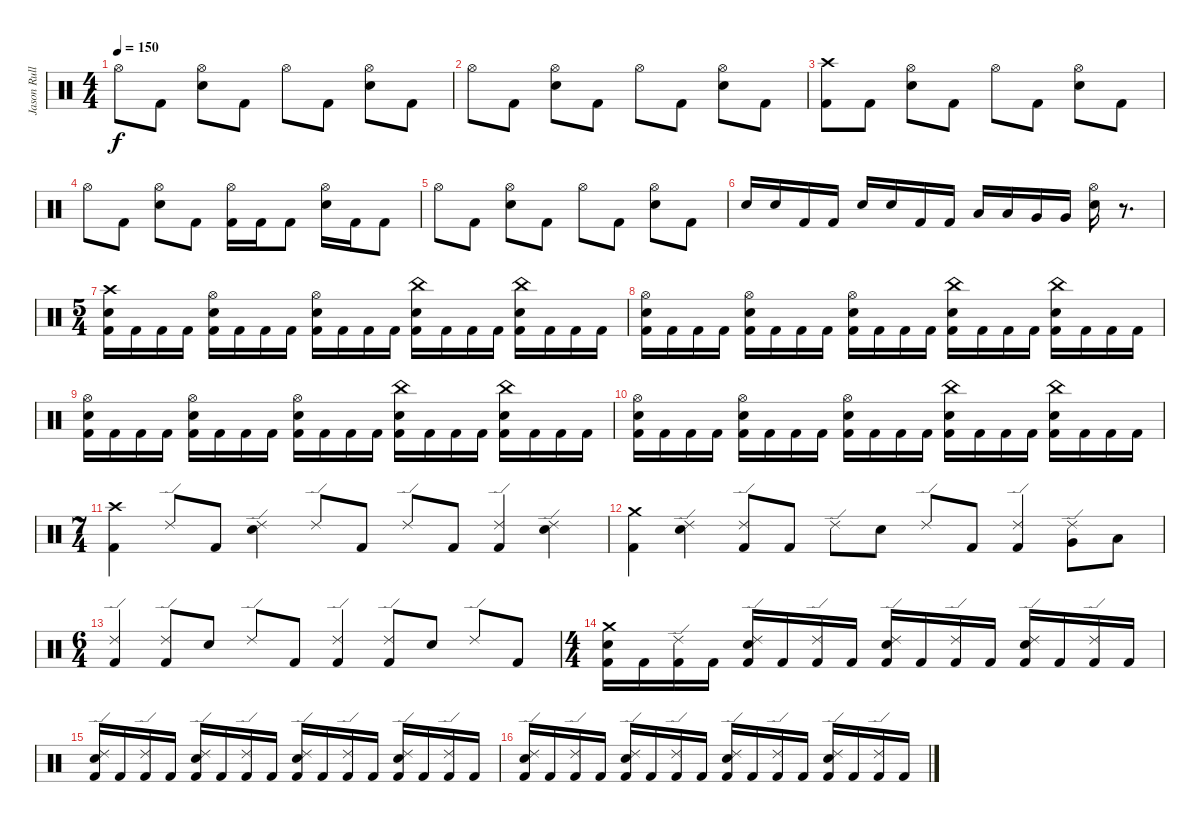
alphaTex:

\track ("Jason Rullo" "Jason Rull") {instrument percussion}
\staff {score}
\articulation defaults
\ts (4 4)
\tempo 150
\clef neutral
\ks c "Hi-Hat (open)".8{dy f} "Kick (hit) 2".8
("Hi-Hat (open)" "Electric Snare (hit)").8 "Kick (hit) 2".8 "Hi-Hat (open)".8 "Kick (hit) 2".8 ("Hi-Hat (open)" "Electric Snare (hit)").8 "Kick (hit) 2".8 |
"Hi-Hat (open)".8 "Kick (hit) 2".8 ("Hi-Hat (open)" "Electric Snare (hit)").8 "Kick (hit) 2".8 "Hi-Hat (open)".8 "Kick (hit) 2".8 ("Hi-Hat (open)" "Electric Snare (hit)").8 "Kick (hit) 2".8 |
("Crash high (hit)" "Kick (hit) 2").8 "Kick (hit) 2".8 ("Hi-Hat (open)" "Electric Snare (hit)").8 "Kick (hit) 2".8 "Hi-Hat (open)".8 "Kick (hit) 2".8 ("Hi-Hat (open)" "Electric Snare (hit)").8 "Kick (hit) 2".8 |
"Hi-Hat (open)".8 "Kick (hit) 2".8 ("Hi-Hat (open)" "Electric Snare (hit)").8 "Kick (hit) 2".8 ("Hi-Hat (open)" "Kick (hit) 2").16 "Kick (hit) 2".16 "Kick (hit) 2".8 ("Hi-Hat (open)" "Electric Snare (hit)").16 "Kick (hit) 2".16 "Kick (hit) 2".8 |
"Hi-Hat (open)".8 "Kick (hit) 2".8 ("Hi-Hat (open)" "Electric Snare (hit)").8 "Kick (hit) 2".8 "Hi-Hat (open)".8 "Kick (hit) 2".8 ("Hi-Hat (open)" "Electric Snare (hit)").8 "Kick (hit) 2".8 |
"Electric Snare (hit)".16 "Electric Snare (hit)".16 "Kick (hit) 2".16 "Kick (hit) 2".16 "Electric Snare (hit)".16 "Electric Snare (hit)".16 "Kick (hit) 2".16 "Kick (hit) 2".16 "Low Tom (hit)".16 "Low Tom (hit)".16 "Very Low Tom (hit)".16 "Very Low Tom (hit)".16 ("Hi-Hat (open)" "Electric Snare (hit)").16 r.8{d} |
\ts (5 4)
("Crash high (hit)" "Electric Snare (hit)" "Kick (hit) 2").16 "Kick (hit) 2".16 "Kick (hit) 2".16 "Kick (hit) 2".16 ("Hi-Hat (open)" "Electric Snare (hit)" "Kick (hit) 2").16 "Kick (hit) 2".16 "Kick (hit) 2".16 "Kick (hit) 2".16 ("Hi-Hat (open)" "Electric Snare (hit)" "Kick (hit) 2").16 "Kick (hit) 2".16 "Kick (hit) 2".16 "Kick (hit) 2".16 ("China (hit)" "Electric Snare (hit)" "Kick (hit) 2").16 "Kick (hit) 2".16 "Kick (hit) 2".16 "Kick (hit) 2".16 ("China (hit)" "Electric Snare (hit)" "Kick (hit) 2").16 "Kick (hit) 2".16 "Kick (hit) 2".16 "Kick (hit) 2".16 |
("Hi-Hat (open)" "Electric Snare (hit)" "Kick (hit) 2").16 "Kick (hit) 2".16 "Kick (hit) 2".16 "Kick (hit) 2".16 ("Hi-Hat (open)" "Electric Snare (hit)" "Kick (hit) 2").16 "Kick (hit) 2".16 "Kick (hit) 2".16 "Kick (hit) 2".16 ("Hi-Hat (open)" "Electric Snare (hit)" "Kick (hit) 2").16 "Kick (hit) 2".16 "Kick (hit) 2".16 "Kick (hit) 2".16 ("China (hit)" "Electric Snare (hit)" "Kick (hit) 2").16 "Kick (hit) 2".16 "Kick (hit) 2".16 "Kick (hit) 2".16 ("China (hit)" "Electric Snare (hit)" "Kick (hit) 2").16 "Kick (hit) 2".16 "Kick (hit) 2".16 "Kick (hit) 2".16 |
("Hi-Hat (open)" "Electric Snare (hit)" "Kick (hit) 2").16 "Kick (hit) 2".16 "Kick (hit) 2".16 "Kick (hit) 2".16 ("Hi-Hat (open)" "Electric Snare (hit)" "Kick (hit) 2").16 "Kick (hit) 2".16 "Kick (hit) 2".16 "Kick (hit) 2".16 ("Hi-Hat (open)" "Electric Snare (hit)" "Kick (hit) 2").16 "Kick (hit) 2".16 "Kick (hit) 2".16 "Kick (hit) 2".16 ("China (hit)" "Electric Snare (hit)" "Kick (hit) 2").16 "Kick (hit) 2".16 "Kick (hit) 2".16 "Kick (hit) 2".16 ("China (hit)" "Electric Snare (hit)" "Kick (hit) 2").16 "Kick (hit) 2".16 "Kick (hit) 2".16 "Kick (hit) 2".16 |
("Hi-Hat (open)" "Electric Snare (hit)" "Kick (hit) 2").16 "Kick (hit) 2".16 "Kick (hit) 2".16 "Kick (hit) 2".16 ("Hi-Hat (open)" "Electric Snare (hit)" "Kick (hit) 2").16 "Kick (hit) 2".16 "Kick (hit) 2".16 "Kick (hit) 2".16 ("Hi-Hat (open)" "Electric Snare (hit)" "Kick (hit) 2").16 "Kick (hit) 2".16 "Kick (hit) 2".16 "Kick (hit) 2".16 ("China (hit)" "Electric Snare (hit)" "Kick (hit) 2").16 "Kick (hit) 2".16 "Kick (hit) 2".16 "Kick (hit) 2".16 ("China (hit)" "Electric Snare (hit)" "Kick (hit) 2").16 "Kick (hit) 2".16 "Kick (hit) 2".16 "Kick (hit) 2".16 |
\ts (7 4)
("Crash high (hit)" "Kick (hit) 2").4{volume 16 balance 8} "Ride (edge) 2".8 "Kick (hit) 2".8 ("Ride (edge) 2" "Electric Snare (hit)").4 "Ride (edge) 2".8 "Kick (hit) 2".8 "Ride (edge) 2".8 "Kick (hit) 2".8 ("Ride (edge) 2" "Kick (hit) 2").4 ("Ride (edge) 2" "Electric Snare (hit)").4 |
("Crash medium (hit)" "Kick (hit) 2").4 ("Ride (edge) 2" "Electric Snare (hit)").4 ("Ride (edge) 2" "Kick (hit) 2").8 "Kick (hit) 2".8 "Ride (edge) 2".8 "Electric Snare (hit)".8 "Ride (edge) 2".8 "Kick (hit) 2".8 ("Ride (edge) 2" "Kick (hit) 2").4 ("Ride (edge) 2" "Very Low Tom (hit)").8 "Low Floor Tom (hit)".8 |
\ts (6 4)
("Ride (edge) 2" "Kick (hit) 2").4 ("Ride (edge) 2" "Kick (hit) 2").8 "Electric Snare (hit)".8 "Ride (edge) 2".8 "Kick (hit) 2".8 ("Ride (edge) 2" "Kick (hit) 2").4 ("Ride (edge) 2" "Kick (hit) 2").8 "Electric Snare (hit)".8 "Ride (edge) 2".8 "Kick (hit) 2".8 |
\ts (4 4)
("Crash medium (hit)" "Electric Snare (hit)" "Kick (hit) 2").16 "Kick (hit) 2".16 ("Ride (edge) 2" "Kick (hit) 2").16 "Kick (hit) 2".16 ("Ride (edge) 2" "Electric Snare (hit)" "Kick (hit) 2").16 "Kick (hit) 2".16 ("Ride (edge) 2" "Kick (hit) 2").16 "Kick (hit) 2".16 ("Ride (edge) 2" "Electric Snare (hit)" "Kick (hit) 2").16 "Kick (hit) 2".16 ("Ride (edge) 2" "Kick (hit) 2").16 "Kick (hit) 2".16 ("Ride (edge) 2" "Electric Snare (hit)" "Kick (hit) 2").16 "Kick (hit) 2".16 ("Ride (edge) 2" "Kick (hit) 2").16 "Kick (hit) 2".16 |
("Ride (edge) 2" "Electric Snare (hit)" "Kick (hit) 2").16 "Kick (hit) 2".16 ("Ride (edge) 2" "Kick (hit) 2").16 "Kick (hit) 2".16 ("Ride (edge) 2" "Electric Snare (hit)" "Kick (hit) 2").16 "Kick (hit) 2".16 ("Ride (edge) 2" "Kick (hit) 2").16 "Kick (hit) 2".16 ("Ride (edge) 2" "Electric Snare (hit)" "Kick (hit) 2").16 "Kick (hit) 2".16 ("Ride (edge) 2" "Kick (hit) 2").16 "Kick (hit) 2".16 ("Ride (edge) 2" "Electric Snare (hit)" "Kick (hit) 2").16 "Kick (hit) 2".16 ("Ride (edge) 2" "Kick (hit) 2").16 "Kick (hit) 2".16 |
("Ride (edge) 2" "Electric Snare (hit)" "Kick (hit) 2").16 "Kick (hit) 2".16 ("Ride (edge) 2" "Kick (hit) 2").16 "Kick (hit) 2".16 ("Ride (edge) 2" "Electric Snare (hit)" "Kick (hit) 2").16 "Kick (hit) 2".16 ("Ride (edge) 2" "Kick (hit) 2").16 "Kick (hit) 2".16 ("Ride (edge) 2" "Electric Snare (hit)" "Kick (hit) 2").16 "Kick (hit) 2".16 ("Ride (edge) 2" "Kick (hit) 2").16 "Kick (hit) 2".16 ("Ride (edge) 2" "Electric Snare (hit)" "Kick (hit) 2").16 "Kick (hit) 2".16 ("Ride (edge) 2" "Kick (hit) 2").16 "Kick (hit) 2".16
